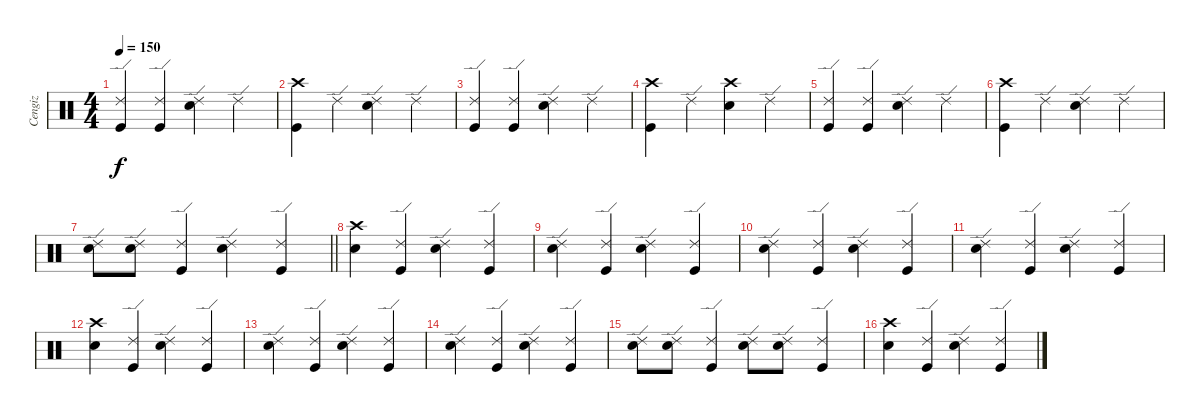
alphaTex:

\track ("Cengiz" "Cengiz") {instrument percussion}
\staff {score}
\articulation defaults
\ts (4 4)
\tempo 150
\clef neutral
\ks c
("Ride (edge) 2" "Kick (hit)").4{dy f} ("Ride (edge) 2" "Kick (hit)").4 ("Ride (edge) 2" "Snare (hit) 2").4 "Ride (edge) 2".4 |
("Crash high (hit)" "Kick (hit)").4 "Ride (edge) 2".4 ("Ride (edge) 2" "Snare (hit) 2").4 "Ride (edge) 2".4 |
("Ride (edge) 2" "Kick (hit)").4 ("Ride (edge) 2" "Kick (hit)").4 ("Ride (edge) 2" "Snare (hit) 2").4 "Ride (edge) 2".4 |
("Crash high (hit)" "Kick (hit)").4 "Ride (edge) 2".4 ("Crash high (hit)" "Snare (hit) 2").4 "Ride (edge) 2".4 |
("Ride (edge) 2" "Kick (hit)").4 ("Ride (edge) 2" "Kick (hit)").4 ("Ride (edge) 2" "Snare (hit) 2").4 "Ride (edge) 2".4 |
("Crash high (hit)" "Kick (hit)").4 "Ride (edge) 2".4 ("Ride (edge) 2" "Snare (hit) 2").4 "Ride (edge) 2".4 |
\barLineRight lightlight
("Ride (edge) 2" "Snare (hit) 2").8 ("Ride (edge) 2" "Snare (hit) 2").8 ("Ride (edge) 2" "Kick (hit)").4 ("Ride (edge) 2" "Snare (hit) 2").4 ("Ride (edge) 2" "Kick (hit)").4 |
("Crash high (hit)" "Snare (hit) 2").4 ("Ride (edge) 2" "Kick (hit)").4 ("Ride (edge) 2" "Snare (hit) 2").4 ("Ride (edge) 2" "Kick (hit)").4 |
("Ride (edge) 2" "Snare (hit) 2").4 ("Ride (edge) 2" "Kick (hit)").4 ("Ride (edge) 2" "Snare (hit) 2").4 ("Ride (edge) 2" "Kick (hit)").4 |
("Ride (edge) 2" "Snare (hit) 2").4 ("Ride (edge) 2" "Kick (hit)").4 ("Ride (edge) 2" "Snare (hit) 2").4 ("Ride (edge) 2" "Kick (hit)").4 |
("Ride (edge) 2" "Snare (hit) 2").4 ("Ride (edge) 2" "Kick (hit)").4 ("Ride (edge) 2" "Snare (hit) 2").4 ("Ride (edge) 2" "Kick (hit)").4 |
("Crash high (hit)" "Snare (hit) 2").4 ("Ride (edge) 2" "Kick (hit)").4 ("Ride (edge) 2" "Snare (hit) 2").4 ("Ride (edge) 2" "Kick (hit)").4 |
("Ride (edge) 2" "Snare (hit) 2").4 ("Ride (edge) 2" "Kick (hit)").4 ("Ride (edge) 2" "Snare (hit) 2").4 ("Ride (edge) 2" "Kick (hit)").4 |
("Ride (edge) 2" "Snare (hit) 2").4 ("Ride (edge) 2" "Kick (hit)").4 ("Ride (edge) 2" "Snare (hit) 2").4 ("Ride (edge) 2" "Kick (hit)").4 |
("Ride (edge) 2" "Snare (hit) 2").8 ("Ride (edge) 2" "Snare (hit) 2").8 ("Ride (edge) 2" "Kick (hit)").4 ("Ride (edge) 2" "Snare (hit) 2").8 ("Ride (edge) 2" "Snare (hit) 2").8 ("Ride (edge) 2" "Kick (hit)").4 |
("Crash high (hit)" "Snare (hit) 2").4 ("Ride (edge) 2" "Kick (hit)").4 ("Ride (edge) 2" "Snare (hit) 2").4 ("Ride (edge) 2" "Kick (hit)").4
